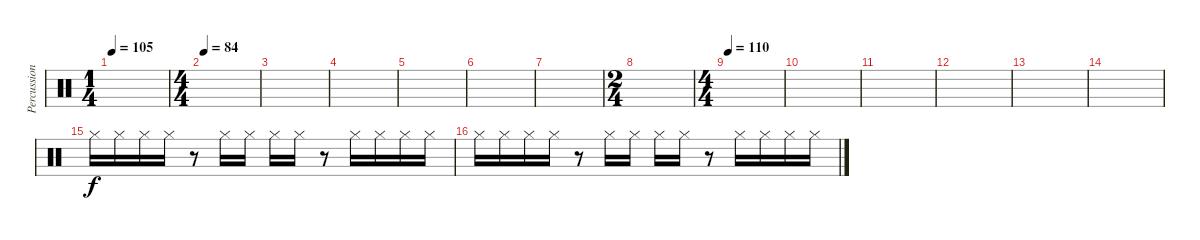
\track ("Percussion" "Percussion") {instrument percussion}
\staff {score}
\articulation defaults
\ts (1 4)
\tempo 105
\clef neutral
\ks c
|
\ts (4 4)
\tempo 84
|
|
|
|
|
|
\ts (2 4)
|
\ts (4 4)
\tempo 110
|
|
|
|
|
|
"Hi-Hat (closed)".16{volume 16} "Hi-Hat (closed)".16 "Hi-Hat (closed)".16 "Hi-Hat (closed)".16 r.8 "Hi-Hat (closed)".16 "Hi-Hat (closed)".16 "Hi-Hat (closed)".16 "Hi-Hat (closed)".16 r.8 "Hi-Hat (closed)".16 "Hi-Hat (closed)".16 "Hi-Hat (closed)".16 "Hi-Hat (closed)".16 |
"Hi-Hat (closed)".16 "Hi-Hat (closed)".16 "Hi-Hat (closed)".16 "Hi-Hat (closed)".16 r.8 "Hi-Hat (closed)".16 "Hi-Hat (closed)".16 "Hi-Hat (closed)".16 "Hi-Hat (closed)".16 r.8 "Hi-Hat (closed)".16 "Hi-Hat (closed)".16 "Hi-Hat (closed)".16 "Hi-Hat (closed)".16
